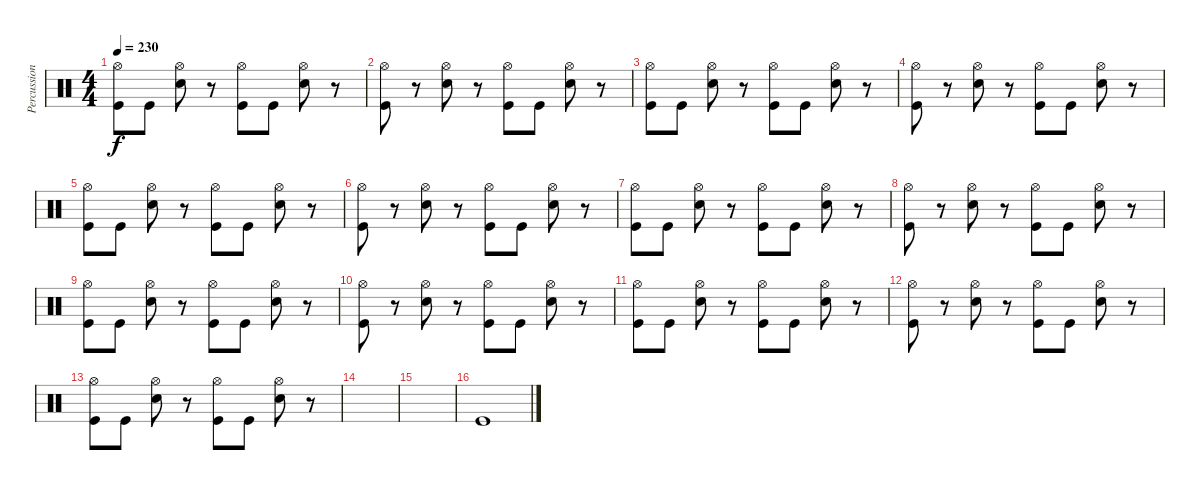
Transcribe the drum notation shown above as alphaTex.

\track ("Percussions" "Percussion") {instrument percussion}
\staff {score}
\articulation defaults
\ts (4 4)
\tempo 230
\clef neutral
\ks c
("Hi-Hat (open)" "Kick (hit)").8{dy f} "Kick (hit)".8 ("Hi-Hat (open)" "Electric Snare (hit)").8 r.8 ("Hi-Hat (open)" "Kick (hit)").8 "Kick (hit)".8 ("Hi-Hat (open)" "Electric Snare (hit)").8 r.8 |
("Hi-Hat (open)" "Kick (hit)").8 r.8 ("Hi-Hat (open)" "Electric Snare (hit)").8 r.8 ("Hi-Hat (open)" "Kick (hit)").8 "Kick (hit)".8 ("Hi-Hat (open)" "Electric Snare (hit)").8 r.8 |
("Hi-Hat (open)" "Kick (hit)").8 "Kick (hit)".8 ("Hi-Hat (open)" "Electric Snare (hit)").8 r.8 ("Hi-Hat (open)" "Kick (hit)").8 "Kick (hit)".8 ("Hi-Hat (open)" "Electric Snare (hit)").8 r.8 |
("Hi-Hat (open)" "Kick (hit)").8 r.8 ("Hi-Hat (open)" "Electric Snare (hit)").8 r.8 ("Hi-Hat (open)" "Kick (hit)").8 "Kick (hit)".8 ("Hi-Hat (open)" "Electric Snare (hit)").8 r.8 |
("Hi-Hat (open)" "Kick (hit)").8 "Kick (hit)".8 ("Hi-Hat (open)" "Electric Snare (hit)").8 r.8 ("Hi-Hat (open)" "Kick (hit)").8 "Kick (hit)".8 ("Hi-Hat (open)" "Electric Snare (hit)").8 r.8 |
("Hi-Hat (open)" "Kick (hit)").8 r.8 ("Hi-Hat (open)" "Electric Snare (hit)").8 r.8 ("Hi-Hat (open)" "Kick (hit)").8 "Kick (hit)".8 ("Hi-Hat (open)" "Electric Snare (hit)").8 r.8 |
("Hi-Hat (open)" "Kick (hit)").8 "Kick (hit)".8 ("Hi-Hat (open)" "Electric Snare (hit)").8 r.8 ("Hi-Hat (open)" "Kick (hit)").8 "Kick (hit)".8 ("Hi-Hat (open)" "Electric Snare (hit)").8 r.8 |
("Hi-Hat (open)" "Kick (hit)").8 r.8 ("Hi-Hat (open)" "Electric Snare (hit)").8 r.8 ("Hi-Hat (open)" "Kick (hit)").8 "Kick (hit)".8 ("Hi-Hat (open)" "Electric Snare (hit)").8 r.8 |
("Hi-Hat (open)" "Kick (hit)").8 "Kick (hit)".8 ("Hi-Hat (open)" "Electric Snare (hit)").8 r.8 ("Hi-Hat (open)" "Kick (hit)").8 "Kick (hit)".8 ("Hi-Hat (open)" "Electric Snare (hit)").8 r.8 |
("Hi-Hat (open)" "Kick (hit)").8 r.8 ("Hi-Hat (open)" "Electric Snare (hit)").8 r.8 ("Hi-Hat (open)" "Kick (hit)").8 "Kick (hit)".8 ("Hi-Hat (open)" "Electric Snare (hit)").8 r.8 |
("Hi-Hat (open)" "Kick (hit)").8 "Kick (hit)".8 ("Hi-Hat (open)" "Electric Snare (hit)").8 r.8 ("Hi-Hat (open)" "Kick (hit)").8 "Kick (hit)".8 ("Hi-Hat (open)" "Electric Snare (hit)").8 r.8 |
("Hi-Hat (open)" "Kick (hit)").8 r.8 ("Hi-Hat (open)" "Electric Snare (hit)").8 r.8 ("Hi-Hat (open)" "Kick (hit)").8 "Kick (hit)".8 ("Hi-Hat (open)" "Electric Snare (hit)").8 r.8 |
("Hi-Hat (open)" "Kick (hit)").8 "Kick (hit)".8 ("Hi-Hat (open)" "Electric Snare (hit)").8 r.8 ("Hi-Hat (open)" "Kick (hit)").8 "Kick (hit)".8 ("Hi-Hat (open)" "Electric Snare (hit)").8 r.8 |
|
|
"Kick (hit)".1
